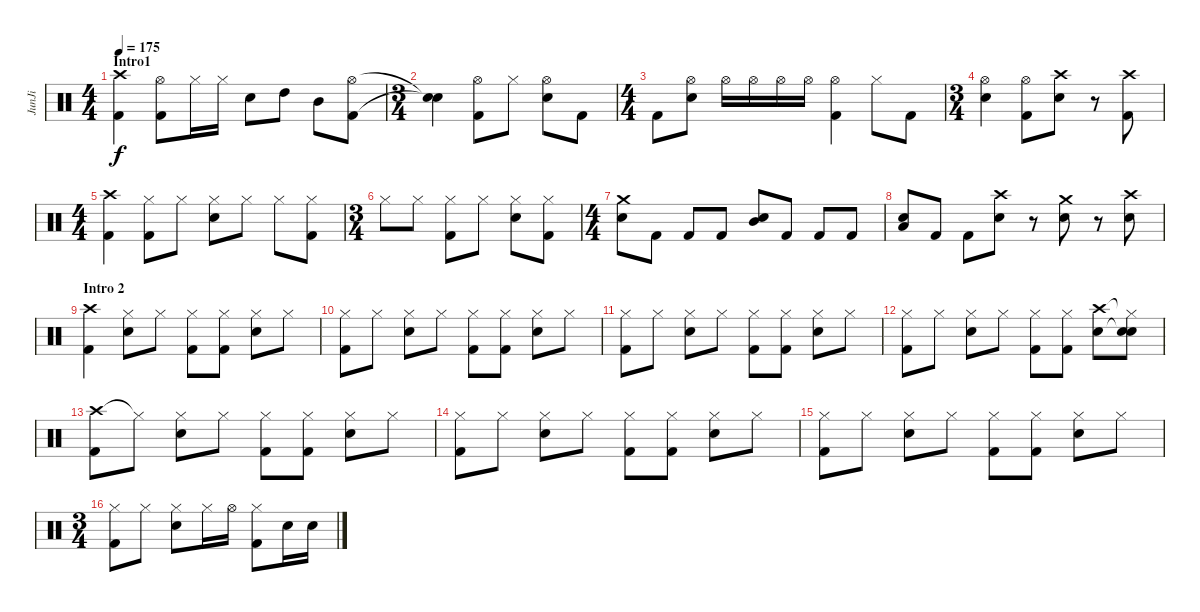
\track ("JunJi" "JunJi") {instrument percussion}
\staff {score}
\articulation defaults
\ts (4 4)
\section ("" "Intro1")
\tempo 175
\clef neutral
\ks c
("Crash high (hit)" "Kick (hit) 2").4{dy f} ("Hi-Hat (open)" "Kick (hit) 2").8 "Hi-Hat (closed)".16 "Hi-Hat (closed)".16 "Snare (hit) 2".8 "High Tom (hit)".8 "Mid Tom (hit)".8 ("Hi-Hat (open)" "Kick (hit) 2").8 |
\ts (3 4)
("Snare (hit)"{t} "Snare (hit)"{t}).4 ("Hi-Hat (open)" "Kick (hit) 2").8 "Hi-Hat (closed)".8 ("Hi-Hat (open)" "Snare (hit) 2").8 "Kick (hit) 2".8 |
\ts (4 4)
"Kick (hit) 2".8 ("Hi-Hat (open)" "Snare (hit) 2").8 "Hi-Hat (open)".16 "Hi-Hat (open)".16 "Hi-Hat (open)".16 "Hi-Hat (open)".16 ("Hi-Hat (open)" "Kick (hit) 2").4 "Hi-Hat (closed)".8 "Kick (hit) 2".8 |
\ts (3 4)
("Hi-Hat (open)" "Snare (hit) 2").4 ("Hi-Hat (open)" "Kick (hit) 2").8 ("Crash high (hit)" "Snare (hit) 2").8 r.8 ("Crash high (hit)" "Kick (hit) 2").8 |
\ts (4 4)
("Crash high (hit)" "Kick (hit) 2").4 ("Hi-Hat (closed)" "Kick (hit) 2").8 "Hi-Hat (closed)".8 ("Hi-Hat (closed)" "Snare (hit) 2").8 "Hi-Hat (closed)".8 "Hi-Hat (closed)".8 ("Hi-Hat (closed)" "Kick (hit) 2").8 |
\ts (3 4)
"Hi-Hat (closed)".8 "Hi-Hat (closed)".8 ("Hi-Hat (closed)" "Kick (hit) 2").8 "Hi-Hat (closed)".8 ("Hi-Hat (closed)" "Snare (hit) 2").8 ("Hi-Hat (closed)" "Kick (hit) 2").8 |
\ts (4 4)
("Crash medium (hit)" "Snare (hit) 2").8 "Kick (hit) 2".8 "Kick (hit) 2".8 "Kick (hit) 2".8 ("Snare (hit) 2" "Mid Tom (hit)").8 "Kick (hit) 2".8 "Kick (hit) 2".8 "Kick (hit) 2".8 |
("Low Tom (hit)" "Snare (hit) 2").8 "Kick (hit) 2".8 "Kick (hit) 2".8 ("Crash high (hit)" "Snare (hit) 2").8 r.8 ("Crash medium (hit)" "Snare (hit) 2").8 r.8 ("Crash high (hit)" "Snare (hit) 2").8 |
\section ("" "Intro 2")
("Crash high (hit)" "Kick (hit) 2").4 ("Hi-Hat (closed)" "Snare (hit) 2").8 "Hi-Hat (closed)".8 ("Hi-Hat (closed)" "Kick (hit) 2").8 ("Hi-Hat (closed)" "Kick (hit) 2").8 ("Hi-Hat (closed)" "Snare (hit) 2").8 "Hi-Hat (closed)".8 |
("Hi-Hat (closed)" "Kick (hit) 2").8 "Hi-Hat (closed)".8 ("Hi-Hat (closed)" "Snare (hit) 2").8 "Hi-Hat (closed)".8 ("Hi-Hat (closed)" "Kick (hit) 2").8 ("Hi-Hat (closed)" "Kick (hit) 2").8 ("Hi-Hat (closed)" "Snare (hit) 2").8 "Hi-Hat (closed)".8 |
("Hi-Hat (closed)" "Kick (hit) 2").8 "Hi-Hat (closed)".8 ("Hi-Hat (closed)" "Snare (hit) 2").8 "Hi-Hat (closed)".8 ("Hi-Hat (closed)" "Kick (hit) 2").8 ("Hi-Hat (closed)" "Kick (hit) 2").8 ("Hi-Hat (closed)" "Snare (hit) 2").8 "Hi-Hat (closed)".8 |
("Hi-Hat (closed)" "Kick (hit) 2").8 "Hi-Hat (closed)".8 ("Hi-Hat (closed)" "Snare (hit) 2").8 "Hi-Hat (closed)".8 ("Hi-Hat (closed)" "Kick (hit) 2").8 ("Hi-Hat (closed)" "Kick (hit) 2").8 ("Crash high (hit)" "Snare (hit) 2").8 ("Hi-Hat (closed)"{t} "Snare (hit)"{t} "Snare (hit)").8 |
("Crash high (hit)" "Kick (hit) 2").8 "Hi-Hat (closed)"{t}.8 ("Hi-Hat (closed)" "Snare (hit) 2").8 "Hi-Hat (closed)".8 ("Hi-Hat (closed)" "Kick (hit) 2").8 ("Hi-Hat (closed)" "Kick (hit) 2").8 ("Hi-Hat (closed)" "Snare (hit) 2").8 "Hi-Hat (closed)".8 |
("Hi-Hat (closed)" "Kick (hit) 2").8 "Hi-Hat (closed)".8 ("Hi-Hat (closed)" "Snare (hit) 2").8 "Hi-Hat (closed)".8 ("Hi-Hat (closed)" "Kick (hit) 2").8 ("Hi-Hat (closed)" "Kick (hit) 2").8 ("Hi-Hat (closed)" "Snare (hit) 2").8 "Hi-Hat (closed)".8 |
("Hi-Hat (closed)" "Kick (hit) 2").8 "Hi-Hat (closed)".8 ("Hi-Hat (closed)" "Snare (hit) 2").8 "Hi-Hat (closed)".8 ("Hi-Hat (closed)" "Kick (hit) 2").8 ("Hi-Hat (closed)" "Kick (hit) 2").8 ("Hi-Hat (closed)" "Snare (hit) 2").8 "Hi-Hat (closed)".8 |
\ts (3 4)
("Hi-Hat (closed)" "Kick (hit) 2").8 "Hi-Hat (closed)".8 ("Hi-Hat (closed)" "Snare (hit) 2").8 "Hi-Hat (closed)".16 "Hi-Hat (open)".16 ("Hi-Hat (closed)" "Kick (hit) 2").8 "Snare (hit) 2".16 "Snare (hit) 2".16
